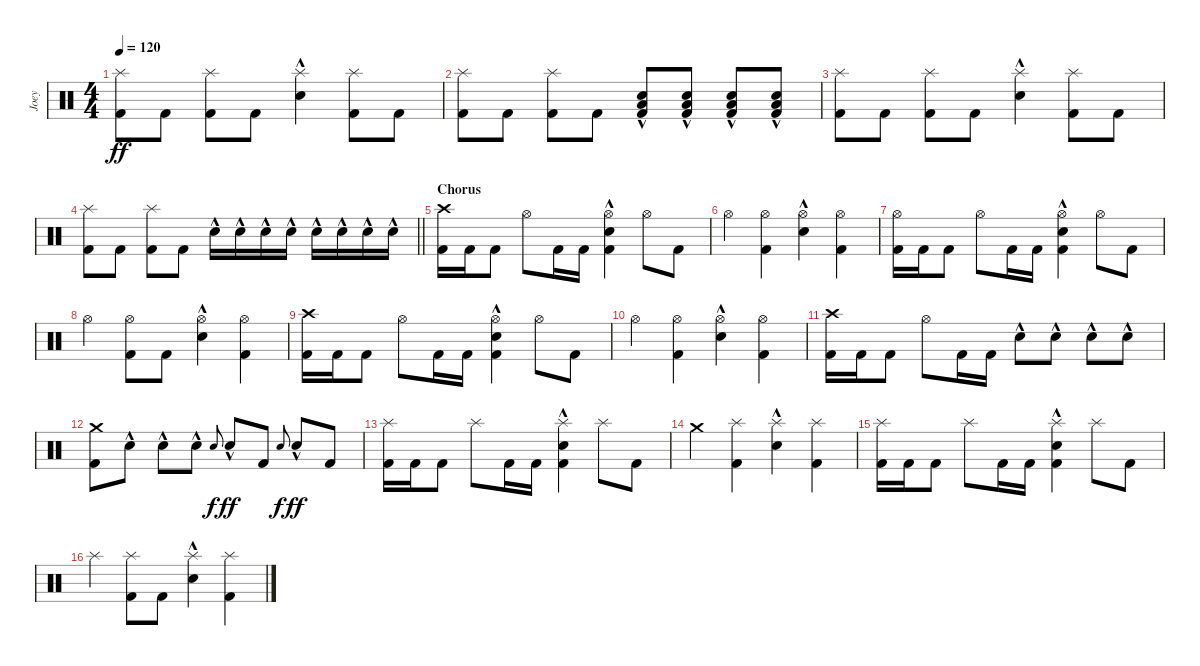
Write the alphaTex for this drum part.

\track ("Joey" "Joey") {instrument percussion}
\staff {score}
\articulation defaults
\ts (4 4)
\tempo 120
\clef neutral
\ks c
("Splash (hit)" "Kick (hit) 2").8{dy ff} "Kick (hit) 2".8 ("Splash (hit)" "Kick (hit) 2").8 "Kick (hit) 2".8 ("Splash (hit)" "Snare (hit) 2"{hac}).4 ("Splash (hit)" "Kick (hit) 2").8 "Kick (hit) 2".8 |
("Splash (hit)" "Kick (hit) 2").8 "Kick (hit) 2".8 ("Splash (hit)" "Kick (hit) 2").8 "Kick (hit) 2".8 ("Low Floor Tom (hit)"{hac} "Snare (hit) 2"{hac} "Kick (hit) 2").8 ("Low Floor Tom (hit)"{hac} "Snare (hit) 2"{hac} "Kick (hit) 2").8 ("Low Floor Tom (hit)"{hac} "Snare (hit) 2"{hac} "Kick (hit) 2").8 ("Low Floor Tom (hit)"{hac} "Snare (hit) 2"{hac} "Kick (hit) 2").8 |
("Splash (hit)" "Kick (hit) 2").8 "Kick (hit) 2".8 ("Splash (hit)" "Kick (hit) 2").8 "Kick (hit) 2".8 ("Splash (hit)" "Snare (hit) 2"{hac}).4 ("Splash (hit)" "Kick (hit) 2").8 "Kick (hit) 2".8 |
\barLineRight lightlight
("Splash (hit)" "Kick (hit) 2").8 "Kick (hit) 2".8 ("Splash (hit)" "Kick (hit) 2").8 "Kick (hit) 2".8 "Snare (hit) 2"{hac}.16 "Snare (hit) 2"{hac}.16 "Snare (hit) 2"{hac}.16 "Snare (hit) 2"{hac}.16 "Snare (hit) 2"{hac}.16 "Snare (hit) 2"{hac}.16 "Snare (hit) 2"{hac}.16 "Snare (hit) 2"{hac}.16 |
\section ("" "Chorus")
("Crash high (hit)" "Kick (hit) 2").16 "Kick (hit) 2".16 "Kick (hit) 2".8 "Hi-Hat (open)".8 "Kick (hit) 2".16 "Kick (hit) 2".16 ("Hi-Hat (open)" "Snare (hit) 2"{hac} "Kick (hit) 2").4 "Hi-Hat (open)".8 "Kick (hit) 2".8 |
"Hi-Hat (open)".4 ("Hi-Hat (open)" "Kick (hit) 2").4 ("Hi-Hat (open)" "Snare (hit) 2"{hac}).4 ("Hi-Hat (open)" "Kick (hit) 2").4 |
("Hi-Hat (open)" "Kick (hit) 2").16 "Kick (hit) 2".16 "Kick (hit) 2".8 "Hi-Hat (open)".8 "Kick (hit) 2".16 "Kick (hit) 2".16 ("Hi-Hat (open)" "Snare (hit) 2"{hac} "Kick (hit) 2").4 "Hi-Hat (open)".8 "Kick (hit) 2".8 |
"Hi-Hat (open)".4 ("Hi-Hat (open)" "Kick (hit) 2").8 "Kick (hit) 2".8 ("Hi-Hat (open)" "Snare (hit) 2"{hac}).4 ("Hi-Hat (open)" "Kick (hit) 2").4 |
("Crash high (hit)" "Kick (hit) 2").16 "Kick (hit) 2".16 "Kick (hit) 2".8 "Hi-Hat (open)".8 "Kick (hit) 2".16 "Kick (hit) 2".16 ("Hi-Hat (open)" "Snare (hit) 2"{hac} "Kick (hit) 2").4 "Hi-Hat (open)".8 "Kick (hit) 2".8 |
"Hi-Hat (open)".4 ("Hi-Hat (open)" "Kick (hit) 2").4 ("Hi-Hat (open)" "Snare (hit) 2"{hac}).4 ("Hi-Hat (open)" "Kick (hit) 2").4 |
("Crash high (hit)" "Kick (hit) 2").16 "Kick (hit) 2".16 "Kick (hit) 2".8 "Hi-Hat (open)".8 "Kick (hit) 2".16 "Kick (hit) 2".16 "Snare (hit) 2"{hac}.8 "Snare (hit) 2"{hac}.8 "Snare (hit) 2"{hac}.8 "Snare (hit) 2"{hac}.8 |
("Crash medium (hit)" "Kick (hit) 2").8 "Snare (hit) 2"{hac}.8 "Snare (hit) 2"{hac}.8 "Snare (hit) 2"{hac}.8 "Snare (hit) 2".8{gr onbeat dy f} "Snare (hit) 2"{hac}.8{dy ff} "Kick (hit) 2".8 "Snare (hit) 2".8{gr onbeat dy f} "Snare (hit) 2"{hac}.8{dy ff} "Kick (hit) 2".8 |
("Splash (hit)" "Kick (hit) 2").16 "Kick (hit) 2".16 "Kick (hit) 2".8 "Splash (hit)".8 "Kick (hit) 2".16 "Kick (hit) 2".16 ("Splash (hit)" "Snare (hit) 2"{hac} "Kick (hit) 2").4 "Splash (hit)".8 "Kick (hit) 2".8 |
"Crash medium (hit)".4 ("Splash (hit)" "Kick (hit) 2").4 ("Splash (hit)" "Snare (hit) 2"{hac}).4 ("Splash (hit)" "Kick (hit) 2").4 |
("Splash (hit)" "Kick (hit) 2").16 "Kick (hit) 2".16 "Kick (hit) 2".8 "Splash (hit)".8 "Kick (hit) 2".16 "Kick (hit) 2".16 ("Splash (hit)" "Snare (hit) 2"{hac} "Kick (hit) 2").4 "Splash (hit)".8 "Kick (hit) 2".8 |
"Splash (hit)".4 ("Splash (hit)" "Kick (hit) 2").8 "Kick (hit) 2".8 ("Splash (hit)" "Snare (hit) 2"{hac}).4 ("Splash (hit)" "Kick (hit) 2").4
